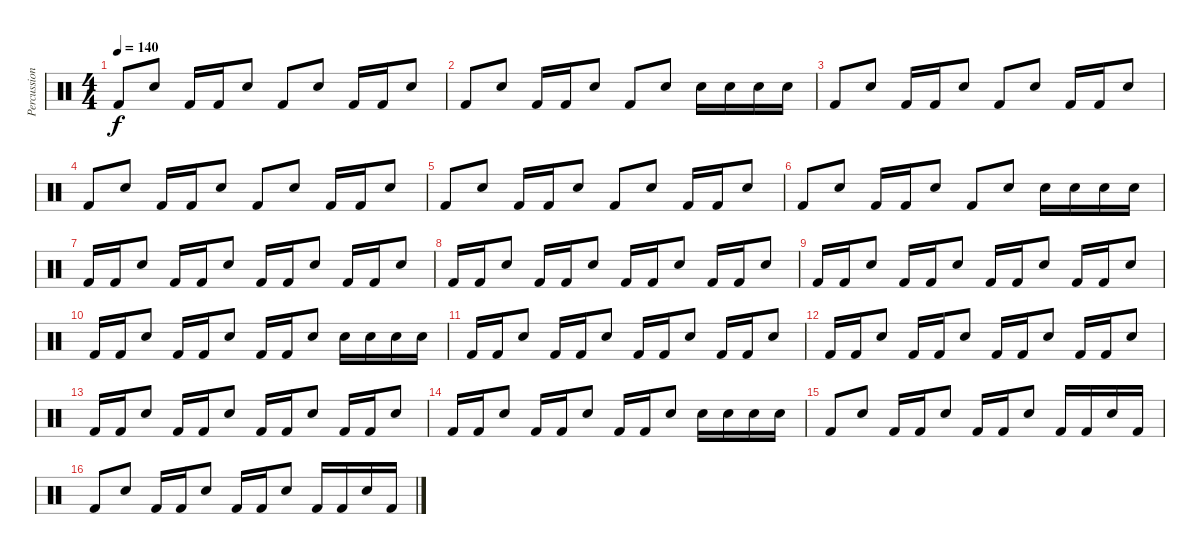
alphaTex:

\track ("Percussion" "Percussion") {instrument percussion}
\staff {score}
\articulation defaults
\ts (4 4)
\tempo 140
\clef neutral
\ks c "Kick (hit) 2".8{dy f} "Snare (hit) 2".8 "Kick (hit) 2".16 "Kick (hit) 2".16 "Snare (hit) 2".8 "Kick (hit) 2".8 "Snare (hit) 2".8 "Kick (hit) 2".16 "Kick (hit) 2".16 "Snare (hit) 2".8
|
"Kick (hit) 2".8 "Snare (hit) 2".8 "Kick (hit) 2".16 "Kick (hit) 2".16 "Snare (hit) 2".8 "Kick (hit) 2".8 "Snare (hit) 2".8 "Snare (hit) 2".16 "Snare (hit) 2".16 "Snare (hit) 2".16 "Snare (hit) 2".16 |
"Kick (hit) 2".8 "Snare (hit) 2".8 "Kick (hit) 2".16 "Kick (hit) 2".16 "Snare (hit) 2".8 "Kick (hit) 2".8 "Snare (hit) 2".8 "Kick (hit) 2".16 "Kick (hit) 2".16 "Snare (hit) 2".8 |
"Kick (hit) 2".8 "Snare (hit) 2".8 "Kick (hit) 2".16 "Kick (hit) 2".16 "Snare (hit) 2".8 "Kick (hit) 2".8 "Snare (hit) 2".8 "Kick (hit) 2".16 "Kick (hit) 2".16 "Snare (hit) 2".8 |
"Kick (hit) 2".8 "Snare (hit) 2".8 "Kick (hit) 2".16 "Kick (hit) 2".16 "Snare (hit) 2".8 "Kick (hit) 2".8 "Snare (hit) 2".8 "Kick (hit) 2".16 "Kick (hit) 2".16 "Snare (hit) 2".8 |
"Kick (hit) 2".8 "Snare (hit) 2".8 "Kick (hit) 2".16 "Kick (hit) 2".16 "Snare (hit) 2".8 "Kick (hit) 2".8 "Snare (hit) 2".8 "Snare (hit) 2".16 "Snare (hit) 2".16 "Snare (hit) 2".16 "Snare (hit) 2".16 |
"Kick (hit) 2".16 "Kick (hit) 2".16 "Snare (hit) 2".8 "Kick (hit) 2".16 "Kick (hit) 2".16 "Snare (hit) 2".8 "Kick (hit) 2".16 "Kick (hit) 2".16 "Snare (hit) 2".8 "Kick (hit) 2".16 "Kick (hit) 2".16 "Snare (hit) 2".8 |
"Kick (hit) 2".16 "Kick (hit) 2".16 "Snare (hit) 2".8 "Kick (hit) 2".16 "Kick (hit) 2".16 "Snare (hit) 2".8 "Kick (hit) 2".16 "Kick (hit) 2".16 "Snare (hit) 2".8 "Kick (hit) 2".16 "Kick (hit) 2".16 "Snare (hit) 2".8 |
"Kick (hit) 2".16 "Kick (hit) 2".16 "Snare (hit) 2".8 "Kick (hit) 2".16 "Kick (hit) 2".16 "Snare (hit) 2".8 "Kick (hit) 2".16 "Kick (hit) 2".16 "Snare (hit) 2".8 "Kick (hit) 2".16 "Kick (hit) 2".16 "Snare (hit) 2".8 |
"Kick (hit) 2".16 "Kick (hit) 2".16 "Snare (hit) 2".8 "Kick (hit) 2".16 "Kick (hit) 2".16 "Snare (hit) 2".8 "Kick (hit) 2".16 "Kick (hit) 2".16 "Snare (hit) 2".8 "Snare (hit) 2".16 "Snare (hit) 2".16 "Snare (hit) 2".16 "Snare (hit) 2".16 |
"Kick (hit) 2".16 "Kick (hit) 2".16 "Snare (hit) 2".8 "Kick (hit) 2".16 "Kick (hit) 2".16 "Snare (hit) 2".8 "Kick (hit) 2".16 "Kick (hit) 2".16 "Snare (hit) 2".8 "Kick (hit) 2".16 "Kick (hit) 2".16 "Snare (hit) 2".8 |
"Kick (hit) 2".16 "Kick (hit) 2".16 "Snare (hit) 2".8 "Kick (hit) 2".16 "Kick (hit) 2".16 "Snare (hit) 2".8 "Kick (hit) 2".16 "Kick (hit) 2".16 "Snare (hit) 2".8 "Kick (hit) 2".16 "Kick (hit) 2".16 "Snare (hit) 2".8 |
"Kick (hit) 2".16 "Kick (hit) 2".16 "Snare (hit) 2".8 "Kick (hit) 2".16 "Kick (hit) 2".16 "Snare (hit) 2".8 "Kick (hit) 2".16 "Kick (hit) 2".16 "Snare (hit) 2".8 "Kick (hit) 2".16 "Kick (hit) 2".16 "Snare (hit) 2".8 |
"Kick (hit) 2".16 "Kick (hit) 2".16 "Snare (hit) 2".8 "Kick (hit) 2".16 "Kick (hit) 2".16 "Snare (hit) 2".8 "Kick (hit) 2".16 "Kick (hit) 2".16 "Snare (hit) 2".8 "Snare (hit) 2".16 "Snare (hit) 2".16 "Snare (hit) 2".16 "Snare (hit) 2".16 |
"Kick (hit) 2".8 "Snare (hit) 2".8 "Kick (hit) 2".16 "Kick (hit) 2".16 "Snare (hit) 2".8 "Kick (hit) 2".16 "Kick (hit) 2".16 "Snare (hit) 2".8 "Kick (hit) 2".16 "Kick (hit) 2".16 "Snare (hit) 2".16 "Kick (hit) 2".16 |
"Kick (hit) 2".8 "Snare (hit) 2".8 "Kick (hit) 2".16 "Kick (hit) 2".16 "Snare (hit) 2".8 "Kick (hit) 2".16 "Kick (hit) 2".16 "Snare (hit) 2".8 "Kick (hit) 2".16 "Kick (hit) 2".16 "Snare (hit) 2".16 "Kick (hit) 2".16
